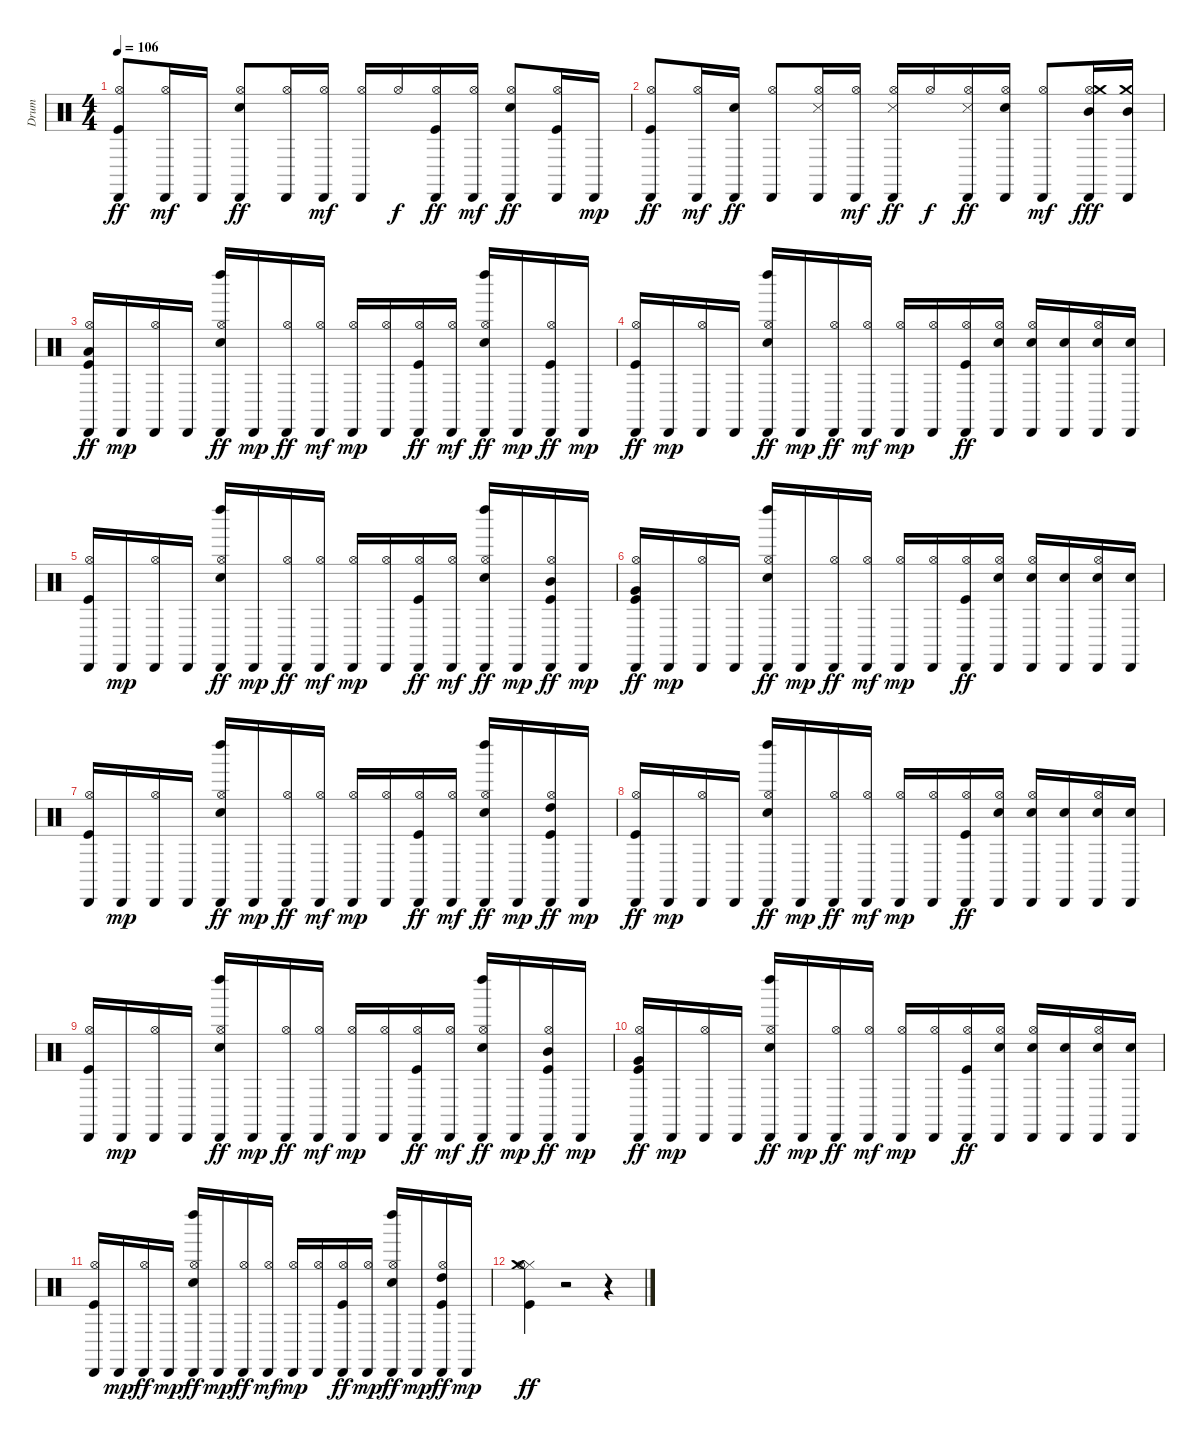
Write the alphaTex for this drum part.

\track ("Drum" "Drum") {instrument percussion}
\staff {score}
\articulation defaults
\ts (4 4)
\tempo 106
\clef neutral
\ks c
("Cabasa (hit)" "Hi-Hat (open)" "Kick (hit)").8{dy ff} ("Cabasa (hit)" "Hi-Hat (open)").16{dy mf} "Cabasa (hit)".16 ("Cabasa (hit)" "Hi-Hat (open)" "Snare (hit) 2").8{dy ff} ("Cabasa (hit)" "Hi-Hat (open)").16 ("Cabasa (hit)" "Hi-Hat (open)").16{dy mf} ("Cabasa (hit)" "Hi-Hat (open)").16 "Hi-Hat (open)".16{dy f} ("Cabasa (hit)" "Hi-Hat (open)" "Kick (hit)").16{dy ff} ("Cabasa (hit)" "Hi-Hat (open)").16{dy mf} ("Cabasa (hit)" "Hi-Hat (open)" "Snare (hit) 2").8{dy ff} ("Cabasa (hit)" "Hi-Hat (open)" "Kick (hit)").16 "Cabasa (hit)".16{dy mp} |
("Cabasa (hit)" "Hi-Hat (open)" "Kick (hit)").8{dy ff} ("Cabasa (hit)" "Hi-Hat (open)").16{dy mf} ("Cabasa (hit)" "Snare (hit) 2").16{dy ff} ("Cabasa (hit)" "Hi-Hat (open)").8 ("Cabasa (hit)" "Hi-Hat (open)" "Snare (side stick) 3").16 ("Cabasa (hit)" "Hi-Hat (open)").16{dy mf} ("Cabasa (hit)" "Hi-Hat (open)" "Snare (side stick) 3").16{dy ff} "Hi-Hat (open)".16{dy f} ("Cabasa (hit)" "Hi-Hat (open)" "Snare (side stick) 3").16{dy ff} ("Cabasa (hit)" "Hi-Hat (open)" "Snare (hit) 2").16 ("Cabasa (hit)" "Hi-Hat (open)").8{dy mf} ("Cabasa (hit)" "Hi-Hat (open)" "Crash medium (hit)" "Mid Tom (hit)").16{dy fff} ("Cabasa (hit)" "Crash medium (hit)" "Mid Tom (hit)").16 |
("Cabasa (hit)" "Hi-Hat (open)" "Low Floor Tom (hit)" "Kick (hit)").16{dy ff} "Cabasa (hit)".16{dy mp} ("Cabasa (hit)" "Hi-Hat (open)").16 "Cabasa (hit)".16 ("Cabasa (hit)" "Hi-Hat (open)" "Left Maraca (hit)" "Snare (hit) 2").16{dy ff} "Cabasa (hit)".16{dy mp} ("Cabasa (hit)" "Hi-Hat (open)").16{dy ff} ("Cabasa (hit)" "Hi-Hat (open)").16{dy mf} ("Cabasa (hit)" "Hi-Hat (open)").16{dy mp} ("Cabasa (hit)" "Hi-Hat (open)").16 ("Cabasa (hit)" "Hi-Hat (open)" "Kick (hit)").16{dy ff} ("Cabasa (hit)" "Hi-Hat (open)").16{dy mf} ("Cabasa (hit)" "Hi-Hat (open)" "Left Maraca (hit)" "Snare (hit) 2").16{dy ff} "Cabasa (hit)".16{dy mp} ("Cabasa (hit)" "Hi-Hat (open)" "Kick (hit)").16{dy ff} "Cabasa (hit)".16{dy mp} |
("Cabasa (hit)" "Hi-Hat (open)" "Kick (hit)").16{dy ff} "Cabasa (hit)".16{dy mp} ("Cabasa (hit)" "Hi-Hat (open)").16 "Cabasa (hit)".16 ("Cabasa (hit)" "Hi-Hat (open)" "Left Maraca (hit)" "Snare (hit) 2").16{dy ff} "Cabasa (hit)".16{dy mp} ("Cabasa (hit)" "Hi-Hat (open)").16{dy ff} ("Cabasa (hit)" "Hi-Hat (open)").16{dy mf} ("Cabasa (hit)" "Hi-Hat (open)").16{dy mp} ("Cabasa (hit)" "Hi-Hat (open)").16 ("Cabasa (hit)" "Hi-Hat (open)" "Kick (hit)").16{dy ff} ("Cabasa (hit)" "Hi-Hat (open)" "Snare (hit) 2").16 ("Cabasa (hit)" "Hi-Hat (open)" "Snare (hit) 2").16 ("Cabasa (hit)" "Snare (hit) 2").16 ("Cabasa (hit)" "Hi-Hat (open)" "Snare (hit) 2").16 ("Cabasa (hit)" "Snare (hit) 2").16 |
("Cabasa (hit)" "Hi-Hat (open)" "Kick (hit)").16 "Cabasa (hit)".16{dy mp} ("Cabasa (hit)" "Hi-Hat (open)").16 "Cabasa (hit)".16 ("Cabasa (hit)" "Hi-Hat (open)" "Left Maraca (hit)" "Snare (hit) 2").16{dy ff} "Cabasa (hit)".16{dy mp} ("Cabasa (hit)" "Hi-Hat (open)").16{dy ff} ("Cabasa (hit)" "Hi-Hat (open)").16{dy mf} ("Cabasa (hit)" "Hi-Hat (open)").16{dy mp} ("Cabasa (hit)" "Hi-Hat (open)").16 ("Cabasa (hit)" "Hi-Hat (open)" "Kick (hit)").16{dy ff} ("Cabasa (hit)" "Hi-Hat (open)").16{dy mf} ("Cabasa (hit)" "Hi-Hat (open)" "Left Maraca (hit)" "Snare (hit) 2").16{dy ff} "Cabasa (hit)".16{dy mp} ("Cabasa (hit)" "Hi-Hat (open)" "Mid Tom (hit)" "Kick (hit)").16{dy ff} "Cabasa (hit)".16{dy mp} |
("Cabasa (hit)" "Hi-Hat (open)" "Very Low Tom (hit)" "Kick (hit)").16{dy ff} "Cabasa (hit)".16{dy mp} ("Cabasa (hit)" "Hi-Hat (open)").16 "Cabasa (hit)".16 ("Cabasa (hit)" "Hi-Hat (open)" "Left Maraca (hit)" "Snare (hit) 2").16{dy ff} "Cabasa (hit)".16{dy mp} ("Cabasa (hit)" "Hi-Hat (open)").16{dy ff} ("Cabasa (hit)" "Hi-Hat (open)").16{dy mf} ("Cabasa (hit)" "Hi-Hat (open)").16{dy mp} ("Cabasa (hit)" "Hi-Hat (open)").16 ("Cabasa (hit)" "Hi-Hat (open)" "Kick (hit)").16{dy ff} ("Cabasa (hit)" "Hi-Hat (open)" "Snare (hit) 2").16 ("Cabasa (hit)" "Hi-Hat (open)" "Snare (hit) 2").16 ("Cabasa (hit)" "Snare (hit) 2").16 ("Cabasa (hit)" "Hi-Hat (open)" "Snare (hit) 2").16 ("Cabasa (hit)" "Snare (hit) 2").16 |
("Cabasa (hit)" "Hi-Hat (open)" "Kick (hit)").16 "Cabasa (hit)".16{dy mp} ("Cabasa (hit)" "Hi-Hat (open)").16 "Cabasa (hit)".16 ("Cabasa (hit)" "Hi-Hat (open)" "Left Maraca (hit)" "Snare (hit) 2").16{dy ff} "Cabasa (hit)".16{dy mp} ("Cabasa (hit)" "Hi-Hat (open)").16{dy ff} ("Cabasa (hit)" "Hi-Hat (open)").16{dy mf} ("Cabasa (hit)" "Hi-Hat (open)").16{dy mp} ("Cabasa (hit)" "Hi-Hat (open)").16 ("Cabasa (hit)" "Hi-Hat (open)" "Kick (hit)").16{dy ff} ("Cabasa (hit)" "Hi-Hat (open)").16{dy mf} ("Cabasa (hit)" "Hi-Hat (open)" "Left Maraca (hit)" "Snare (hit) 2").16{dy ff} "Cabasa (hit)".16{dy mp} ("Cabasa (hit)" "Hi-Hat (open)" "High Tom (hit)" "Kick (hit)").16{dy ff} "Cabasa (hit)".16{dy mp} |
("Cabasa (hit)" "Hi-Hat (open)" "Kick (hit)").16{dy ff} "Cabasa (hit)".16{dy mp} ("Cabasa (hit)" "Hi-Hat (open)").16 "Cabasa (hit)".16 ("Cabasa (hit)" "Hi-Hat (open)" "Left Maraca (hit)" "Snare (hit) 2").16{dy ff} "Cabasa (hit)".16{dy mp} ("Cabasa (hit)" "Hi-Hat (open)").16{dy ff} ("Cabasa (hit)" "Hi-Hat (open)").16{dy mf} ("Cabasa (hit)" "Hi-Hat (open)").16{dy mp} ("Cabasa (hit)" "Hi-Hat (open)").16 ("Cabasa (hit)" "Hi-Hat (open)" "Kick (hit)").16{dy ff} ("Cabasa (hit)" "Hi-Hat (open)" "Snare (hit) 2").16 ("Cabasa (hit)" "Hi-Hat (open)" "Snare (hit) 2").16 ("Cabasa (hit)" "Snare (hit) 2").16 ("Cabasa (hit)" "Hi-Hat (open)" "Snare (hit) 2").16 ("Cabasa (hit)" "Snare (hit) 2").16 |
("Cabasa (hit)" "Hi-Hat (open)" "Kick (hit)").16 "Cabasa (hit)".16{dy mp} ("Cabasa (hit)" "Hi-Hat (open)").16 "Cabasa (hit)".16 ("Cabasa (hit)" "Hi-Hat (open)" "Left Maraca (hit)" "Snare (hit) 2").16{dy ff} "Cabasa (hit)".16{dy mp} ("Cabasa (hit)" "Hi-Hat (open)").16{dy ff} ("Cabasa (hit)" "Hi-Hat (open)").16{dy mf} ("Cabasa (hit)" "Hi-Hat (open)").16{dy mp} ("Cabasa (hit)" "Hi-Hat (open)").16 ("Cabasa (hit)" "Hi-Hat (open)" "Kick (hit)").16{dy ff} ("Cabasa (hit)" "Hi-Hat (open)").16{dy mf} ("Cabasa (hit)" "Hi-Hat (open)" "Left Maraca (hit)" "Snare (hit) 2").16{dy ff} "Cabasa (hit)".16{dy mp} ("Cabasa (hit)" "Hi-Hat (open)" "Mid Tom (hit)" "Kick (hit)").16{dy ff} "Cabasa (hit)".16{dy mp} |
("Cabasa (hit)" "Hi-Hat (open)" "Very Low Tom (hit)" "Kick (hit)").16{dy ff} "Cabasa (hit)".16{dy mp} ("Cabasa (hit)" "Hi-Hat (open)").16 "Cabasa (hit)".16 ("Cabasa (hit)" "Hi-Hat (open)" "Left Maraca (hit)" "Snare (hit) 2").16{dy ff} "Cabasa (hit)".16{dy mp} ("Cabasa (hit)" "Hi-Hat (open)").16{dy ff} ("Cabasa (hit)" "Hi-Hat (open)").16{dy mf} ("Cabasa (hit)" "Hi-Hat (open)").16{dy mp} ("Cabasa (hit)" "Hi-Hat (open)").16 ("Cabasa (hit)" "Hi-Hat (open)" "Kick (hit)").16{dy ff} ("Cabasa (hit)" "Hi-Hat (open)" "Snare (hit) 2").16 ("Cabasa (hit)" "Hi-Hat (open)" "Snare (hit) 2").16 ("Cabasa (hit)" "Snare (hit) 2").16 ("Cabasa (hit)" "Hi-Hat (open)" "Snare (hit) 2").16 ("Cabasa (hit)" "Snare (hit) 2").16 |
("Cabasa (hit)" "Hi-Hat (open)" "Kick (hit)").16 "Cabasa (hit)".16{dy mp} ("Cabasa (hit)" "Hi-Hat (open)").16{dy ff} "Cabasa (hit)".16{dy mp} ("Cabasa (hit)" "Hi-Hat (open)" "Left Maraca (hit)" "Snare (hit) 2").16{dy ff} "Cabasa (hit)".16{dy mp} ("Cabasa (hit)" "Hi-Hat (open)").16{dy ff} ("Cabasa (hit)" "Hi-Hat (open)").16{dy mf} ("Cabasa (hit)" "Hi-Hat (open)").16{dy mp} ("Cabasa (hit)" "Hi-Hat (open)").16 ("Cabasa (hit)" "Hi-Hat (open)" "Kick (hit)").16{dy ff} ("Cabasa (hit)" "Hi-Hat (open)").16{dy mp} ("Cabasa (hit)" "Hi-Hat (open)" "Left Maraca (hit)" "Snare (hit) 2").16{dy ff} "Cabasa (hit)".16{dy mp} ("Cabasa (hit)" "Hi-Hat (open)" "High Tom (hit)" "Kick (hit)").16{dy ff} "Cabasa (hit)".16{dy mp} |
("Hi-Hat (closed)" "Hi-Hat (open)" "Crash medium (hit)" "Kick (hit)").4{dy ff} r.2 r.4
